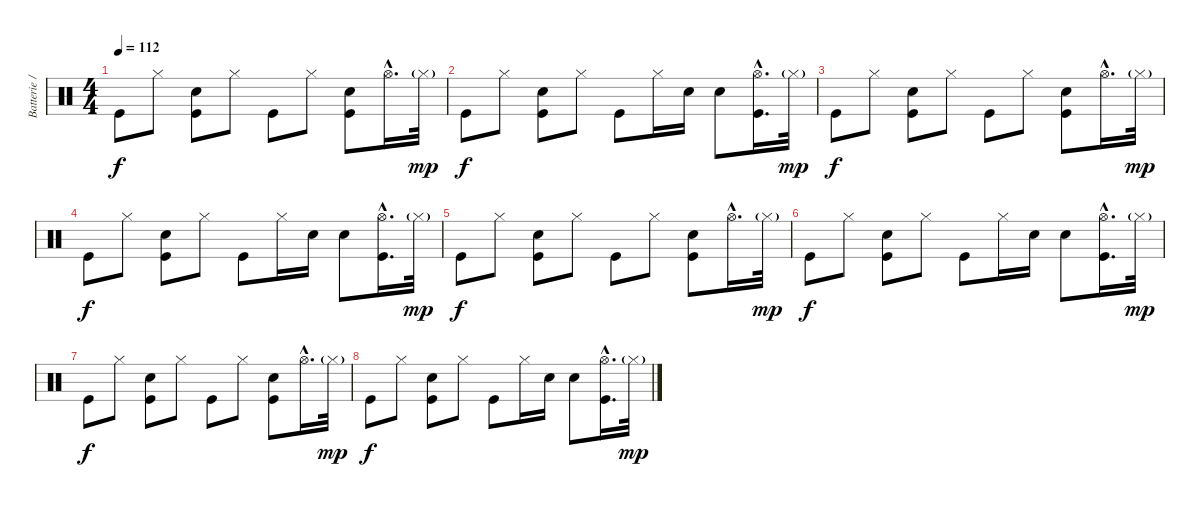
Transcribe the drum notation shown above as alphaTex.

\track ("Batterie // Jerome Dillon" "Batterie /") {instrument percussion}
\staff {score}
\articulation defaults
\ts (4 4)
\tempo 112
\clef neutral
\ks c "Kick (hit)".8{dy f} "Hi-Hat (closed)".8
("Snare (hit) 2" "Kick (hit)").8 "Hi-Hat (closed)".8 "Kick (hit)".8 "Hi-Hat (closed)".8 ("Snare (hit) 2" "Kick (hit)").8 "Hi-Hat (open)"{hac}.16{d} "Hi-Hat (closed)"{g}.32{dy mp} |
"Kick (hit)".8{dy f} "Hi-Hat (closed)".8 ("Snare (hit) 2" "Kick (hit)").8 "Hi-Hat (closed)".8 "Kick (hit)".8 "Hi-Hat (closed)".16 "Snare (hit) 2".16 "Snare (hit) 2".8 ("Hi-Hat (open)"{hac} "Kick (hit)"{hac}).16{d} "Hi-Hat (closed)"{g}.32{dy mp} |
"Kick (hit)".8{dy f} "Hi-Hat (closed)".8 ("Snare (hit) 2" "Kick (hit)").8 "Hi-Hat (closed)".8 "Kick (hit)".8 "Hi-Hat (closed)".8 ("Snare (hit) 2" "Kick (hit)").8 "Hi-Hat (open)"{hac}.16{d} "Hi-Hat (closed)"{g}.32{dy mp} |
"Kick (hit)".8{dy f} "Hi-Hat (closed)".8 ("Snare (hit) 2" "Kick (hit)").8 "Hi-Hat (closed)".8 "Kick (hit)".8 "Hi-Hat (closed)".16 "Snare (hit) 2".16 "Snare (hit) 2".8 ("Hi-Hat (open)"{hac} "Kick (hit)"{hac}).16{d} "Hi-Hat (closed)"{g}.32{dy mp} |
"Kick (hit)".8{dy f} "Hi-Hat (closed)".8 ("Snare (hit) 2" "Kick (hit)").8 "Hi-Hat (closed)".8 "Kick (hit)".8 "Hi-Hat (closed)".8 ("Snare (hit) 2" "Kick (hit)").8 "Hi-Hat (open)"{hac}.16{d} "Hi-Hat (closed)"{g}.32{dy mp} |
"Kick (hit)".8{dy f} "Hi-Hat (closed)".8 ("Snare (hit) 2" "Kick (hit)").8 "Hi-Hat (closed)".8 "Kick (hit)".8 "Hi-Hat (closed)".16 "Snare (hit) 2".16 "Snare (hit) 2".8 ("Hi-Hat (open)"{hac} "Kick (hit)"{hac}).16{d} "Hi-Hat (closed)"{g}.32{dy mp} |
"Kick (hit)".8{dy f} "Hi-Hat (closed)".8 ("Snare (hit) 2" "Kick (hit)").8 "Hi-Hat (closed)".8 "Kick (hit)".8 "Hi-Hat (closed)".8 ("Snare (hit) 2" "Kick (hit)").8 "Hi-Hat (open)"{hac}.16{d} "Hi-Hat (closed)"{g}.32{dy mp} |
"Kick (hit)".8{dy f} "Hi-Hat (closed)".8 ("Snare (hit) 2" "Kick (hit)").8 "Hi-Hat (closed)".8 "Kick (hit)".8 "Hi-Hat (closed)".16 "Snare (hit) 2".16 "Snare (hit) 2".8 ("Hi-Hat (open)"{hac} "Kick (hit)"{hac}).16{d} "Hi-Hat (closed)"{g}.32{dy mp}
